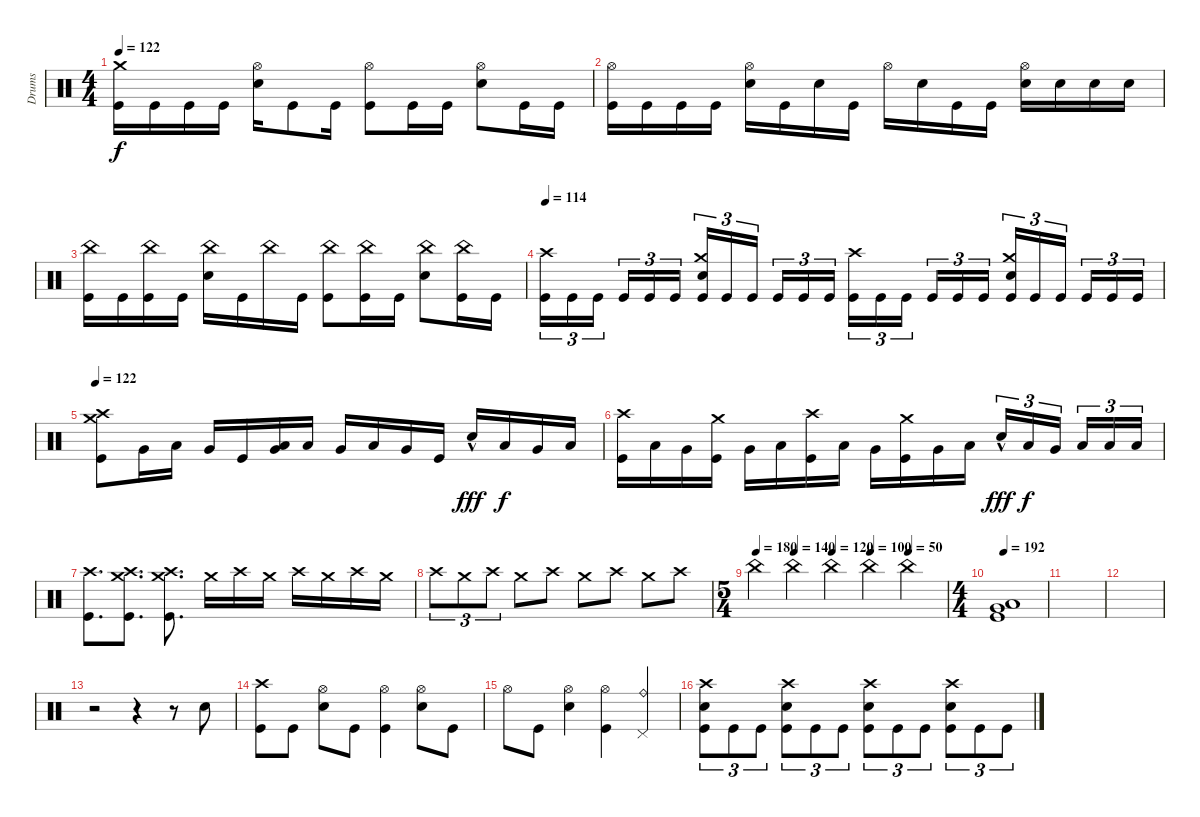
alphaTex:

\track ("Drums" "Drums") {instrument percussion}
\staff {score}
\articulation defaults
\ts (4 4)
\tempo 122
\clef neutral
\ks c
("Kick (hit)" "Crash medium (hit)").16{dy f} "Kick (hit)".16 "Kick (hit)".16 "Kick (hit)".16 ("Snare (hit) 2" "Hi-Hat (open)").16 "Kick (hit)".8 "Kick (hit)".16 ("Hi-Hat (open)" "Kick (hit)").8 "Kick (hit)".16 "Kick (hit)".16 ("Snare (hit) 2" "Hi-Hat (open)").8 "Kick (hit)".16 "Kick (hit)".16 |
("Hi-Hat (open)" "Kick (hit)").16 "Kick (hit)".16 "Kick (hit)".16 "Kick (hit)".16 ("Snare (hit) 2" "Hi-Hat (open)").16 "Kick (hit)".16 "Snare (hit) 2".16 "Kick (hit)".16 "Hi-Hat (open)".16 "Snare (hit) 2".16 "Kick (hit)".16 "Kick (hit)".16 ("Snare (hit) 2" "Hi-Hat (open)").16 "Snare (hit) 2".16 "Snare (hit) 2".16 "Snare (hit) 2".16 |
("Kick (hit)" "China (hit)").16 "Kick (hit)".16 ("Kick (hit)" "China (hit)").16 "Kick (hit)".16 ("Snare (hit) 2" "China (hit)").16 "Kick (hit)".16 "China (hit)".16 "Kick (hit)".16 ("Kick (hit)" "China (hit)").8 ("Kick (hit)" "China (hit)").16 "Kick (hit)".16 ("Snare (hit) 2" "China (hit)").8 ("Kick (hit)" "China (hit)").16 "Kick (hit)".16 |
\tempo 114
("Crash high (hit)" "Kick (hit)").16{tu (3 2)} "Kick (hit)".16{tu (3 2)} "Kick (hit)".16{tu (3 2) beam splitsecondary} "Kick (hit)".16{tu (3 2)} "Kick (hit)".16{tu (3 2)} "Kick (hit)".16{tu (3 2)} ("Snare (hit) 2" "Kick (hit)" "Crash medium (hit)").16{tu (3 2)} "Kick (hit)".16{tu (3 2)} "Kick (hit)".16{tu (3 2) beam splitsecondary} "Kick (hit)".16{tu (3 2)} "Kick (hit)".16{tu (3 2)} "Kick (hit)".16{tu (3 2)} ("Crash high (hit)" "Kick (hit)").16{tu (3 2)} "Kick (hit)".16{tu (3 2)} "Kick (hit)".16{tu (3 2) beam splitsecondary} "Kick (hit)".16{tu (3 2)} "Kick (hit)".16{tu (3 2)} "Kick (hit)".16{tu (3 2)} ("Snare (hit) 2" "Kick (hit)" "Crash medium (hit)").16{tu (3 2)} "Kick (hit)".16{tu (3 2)} "Kick (hit)".16{tu (3 2) beam splitsecondary} "Kick (hit)".16{tu (3 2)} "Kick (hit)".16{tu (3 2)} "Kick (hit)".16{tu (3 2)} |
\tempo 122
("Crash high (hit)" "Kick (hit)" "Crash medium (hit)").8 "Very Low Tom (hit)".16 "Low Tom (hit)".16 "Very Low Tom (hit)".16 "Kick (hit)".16 ("Low Tom (hit)" "Very Low Tom (hit)").16 "Low Tom (hit)".16 "Very Low Tom (hit)".16 "Low Tom (hit)".16 "Very Low Tom (hit)".16 "Kick (hit)".16 "Snare (hit) 2"{hac}.16{dy fff} "Low Tom (hit)".16{dy f} "Very Low Tom (hit)".16 "Low Tom (hit)".16 |
("Crash high (hit)" "Kick (hit)").16 "Low Tom (hit)".16 "Very Low Tom (hit)".16 ("Crash medium (hit)" "Kick (hit)").16 "Very Low Tom (hit)".16 "Low Tom (hit)".16 ("Crash high (hit)" "Kick (hit)").16 "Low Tom (hit)".16 "Very Low Tom (hit)".16 ("Crash medium (hit)" "Kick (hit)").16 "Very Low Tom (hit)".16 "Low Tom (hit)".16 "Snare (hit) 2"{hac}.16{tu (3 2) dy fff} "Low Tom (hit)".16{tu (3 2) dy f} "Very Low Tom (hit)".16{tu (3 2) beam splitsecondary} "Low Floor Tom (hit)".16{tu (3 2)} "Low Floor Tom (hit)".16{tu (3 2)} "Low Floor Tom (hit)".16{tu (3 2)} |
("Kick (hit)" "Crash high (hit)").8{d} ("Crash medium (hit)" "Kick (hit)" "Crash high (hit)").8{d} ("Crash medium (hit)" "Kick (hit)" "Crash high (hit)").8{d} "Crash medium (hit)".16 "Crash high (hit)".16 "Crash medium (hit)".16 "Crash high (hit)".16 "Crash medium (hit)".16 "Crash high (hit)".16 "Crash medium (hit)".16 |
"Crash high (hit)".8{tu (3 2)} "Crash medium (hit)".8{tu (3 2)} "Crash high (hit)".8{tu (3 2)} "Crash medium (hit)".8 "Crash high (hit)".8 "Crash medium (hit)".8 "Crash high (hit)".8 "Crash medium (hit)".8 "Crash high (hit)".8 |
\ts (5 4)
\tempo 180
\tempo (140 0.2)
\tempo (120 0.4)
\tempo (100 0.6)
\tempo (50 0.8)
"China (hit)".4 "China (hit)".4 "China (hit)".4 "China (hit)".4 "China (hit)".4 |
\ts (4 4)
\tempo 192
("Kick (hit)" "Very Low Tom (hit)" "Low Floor Tom (hit)").1 |
|
|
r.2 r.4 r.8 "Snare (hit) 2".8 |
("Kick (hit)" "Crash high (hit)").8 "Kick (hit)".8 ("Snare (hit) 2" "Hi-Hat (open)").8 "Kick (hit)".8 ("Hi-Hat (open)" "Kick (hit)").4 ("Snare (hit) 2" "Hi-Hat (open)").8 "Kick (hit)".8 |
"Hi-Hat (open)".8 "Kick (hit)".8 ("Snare (hit) 2" "Hi-Hat (open)").4 ("Hi-Hat (open)" "Kick (hit)").4 ("Pedal Hi-Hat (hit)" "Ride (bell)").4 |
("Snare (hit) 2" "Kick (hit)" "Crash high (hit)").8{tu (3 2)} "Kick (hit)".8{tu (3 2)} "Kick (hit)".8{tu (3 2)} ("Snare (hit) 2" "Kick (hit)" "Crash high (hit)").8{tu (3 2)} "Kick (hit)".8{tu (3 2)} "Kick (hit)".8{tu (3 2)} ("Snare (hit) 2" "Kick (hit)" "Crash high (hit)").8{tu (3 2)} "Kick (hit)".8{tu (3 2)} "Kick (hit)".8{tu (3 2)} ("Snare (hit) 2" "Kick (hit)" "Crash high (hit)").8{tu (3 2)} "Kick (hit)".8{tu (3 2)} "Kick (hit)".8{tu (3 2)}
